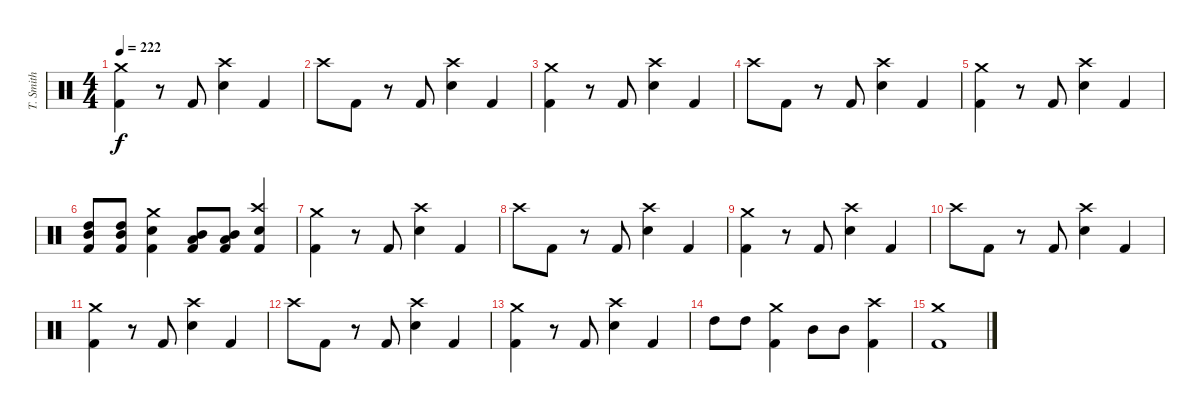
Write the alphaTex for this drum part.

\track ("T. Smith" "T. Smith") {instrument percussion}
\staff {score}
\articulation defaults
\ts (4 4)
\tempo 222
\clef neutral
\ks c
("Crash medium (hit)" "Kick (hit) 2").4{dy f} r.8 "Kick (hit) 2".8 ("Crash high (hit)" "Electric Snare (hit)").4 "Kick (hit) 2".4 |
"Crash high (hit)".8 "Kick (hit) 2".8 r.8 "Kick (hit) 2".8 ("Crash high (hit)" "Electric Snare (hit)").4 "Kick (hit) 2".4 |
("Crash medium (hit)" "Kick (hit) 2").4 r.8 "Kick (hit) 2".8 ("Crash high (hit)" "Electric Snare (hit)").4 "Kick (hit) 2".4 |
"Crash high (hit)".8 "Kick (hit) 2".8 r.8 "Kick (hit) 2".8 ("Crash high (hit)" "Electric Snare (hit)").4 "Kick (hit) 2".4 |
("Crash medium (hit)" "Kick (hit) 2").4 r.8 "Kick (hit) 2".8 ("Crash high (hit)" "Electric Snare (hit)").4 "Kick (hit) 2".4 |
("Mid Tom (hit)" "High Tom (hit)" "Kick (hit) 2").8 ("Mid Tom (hit)" "High Tom (hit)" "Kick (hit) 2").8 ("Crash medium (hit)" "Electric Snare (hit)" "Kick (hit) 2").4 ("Mid Tom (hit)" "Low Tom (hit)" "Kick (hit) 2").8 ("Mid Tom (hit)" "Low Tom (hit)" "Kick (hit) 2").8 ("Crash high (hit)" "Electric Snare (hit)" "Kick (hit) 2").4 |
("Crash medium (hit)" "Kick (hit) 2").4 r.8 "Kick (hit) 2".8 ("Crash high (hit)" "Electric Snare (hit)").4 "Kick (hit) 2".4 |
"Crash high (hit)".8 "Kick (hit) 2".8 r.8 "Kick (hit) 2".8 ("Crash high (hit)" "Electric Snare (hit)").4 "Kick (hit) 2".4 |
("Crash medium (hit)" "Kick (hit) 2").4 r.8 "Kick (hit) 2".8 ("Crash high (hit)" "Electric Snare (hit)").4 "Kick (hit) 2".4 |
"Crash high (hit)".8 "Kick (hit) 2".8 r.8 "Kick (hit) 2".8 ("Crash high (hit)" "Electric Snare (hit)").4 "Kick (hit) 2".4 |
("Crash medium (hit)" "Kick (hit) 2").4 r.8 "Kick (hit) 2".8 ("Crash high (hit)" "Electric Snare (hit)").4 "Kick (hit) 2".4 |
"Crash high (hit)".8 "Kick (hit) 2".8 r.8 "Kick (hit) 2".8 ("Crash high (hit)" "Electric Snare (hit)").4 "Kick (hit) 2".4 |
("Crash medium (hit)" "Kick (hit) 2").4 r.8 "Kick (hit) 2".8 ("Crash high (hit)" "Electric Snare (hit)").4 "Kick (hit) 2".4 |
"High Tom (hit)".8 "High Tom (hit)".8 ("Crash medium (hit)" "Kick (hit) 2").4 "Mid Tom (hit)".8 "Mid Tom (hit)".8 ("Crash high (hit)" "Kick (hit) 2").4 |
("Crash medium (hit)" "Kick (hit) 2").1
